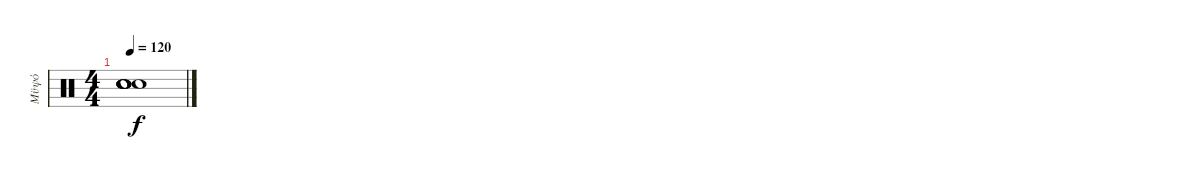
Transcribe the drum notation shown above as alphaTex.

\track ("Μϋψό" "Μϋψό") {instrument percussion}
\staff {score}
\articulation defaults
\ts (4 4)
\tempo 120
\clef neutral
\ks c
("Snare (hit)"{t} "Snare (hit)"{t} "Snare (hit)"{t} "Snare (hit)"{t} "Snare (hit)"{t}).1{dy f}
